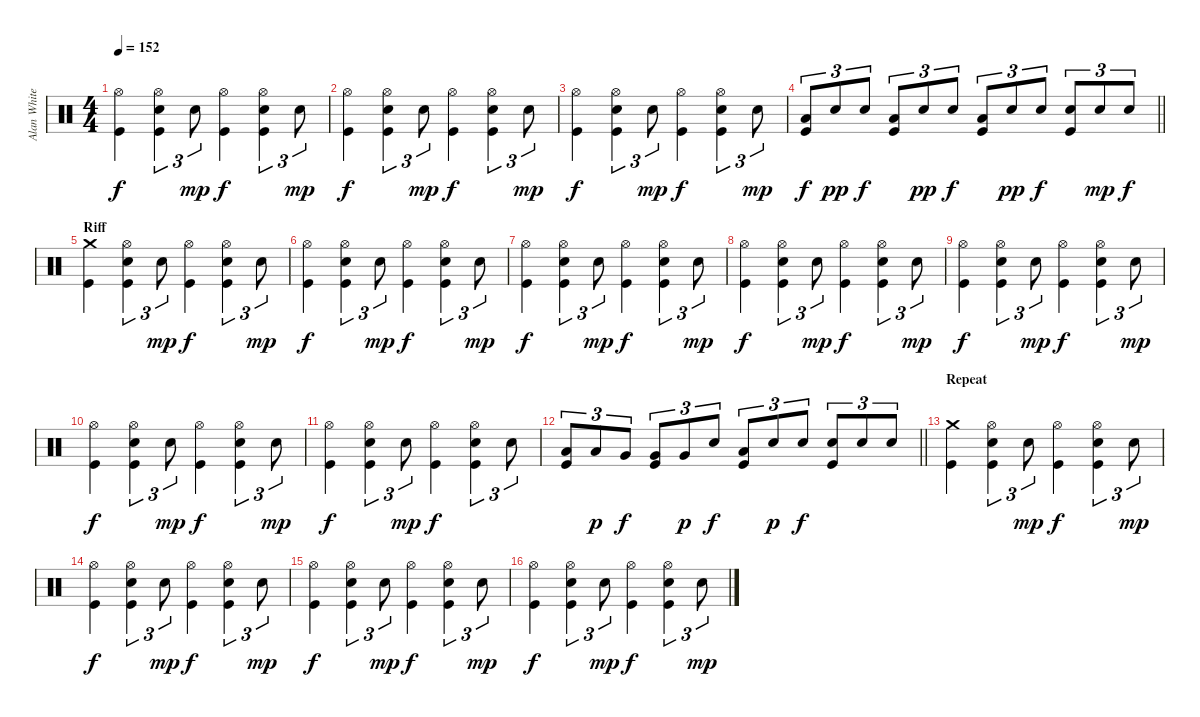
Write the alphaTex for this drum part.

\track ("Alan White" "Alan White") {instrument percussion}
\staff {score}
\articulation defaults
\ts (4 4)
\tempo 152
\clef neutral
\ks c
("Hi-Hat (open)" "Kick (hit)").4{dy f} ("Hi-Hat (open)" "Electric Snare (hit)" "Kick (hit)").4{tu (3 2)} "Electric Snare (hit)".8{tu (3 2) dy mp} ("Hi-Hat (open)" "Kick (hit)").4{dy f} ("Hi-Hat (open)" "Electric Snare (hit)" "Kick (hit)").4{tu (3 2)} "Electric Snare (hit)".8{tu (3 2) dy mp} |
("Hi-Hat (open)" "Kick (hit)").4{dy f} ("Hi-Hat (open)" "Electric Snare (hit)" "Kick (hit)").4{tu (3 2)} "Electric Snare (hit)".8{tu (3 2) dy mp} ("Hi-Hat (open)" "Kick (hit)").4{dy f} ("Hi-Hat (open)" "Electric Snare (hit)" "Kick (hit)").4{tu (3 2)} "Electric Snare (hit)".8{tu (3 2) dy mp} |
("Hi-Hat (open)" "Kick (hit)").4{dy f} ("Hi-Hat (open)" "Electric Snare (hit)" "Kick (hit)").4{tu (3 2)} "Electric Snare (hit)".8{tu (3 2) dy mp} ("Hi-Hat (open)" "Kick (hit)").4{dy f} ("Hi-Hat (open)" "Electric Snare (hit)" "Kick (hit)").4{tu (3 2)} "Electric Snare (hit)".8{tu (3 2) dy mp} |
\barLineRight lightlight
("Low Tom (hit)" "Kick (hit)").8{tu (3 2) dy f} "Electric Snare (hit)".8{tu (3 2) dy pp} "Electric Snare (hit)".8{tu (3 2) dy f} ("Low Tom (hit)" "Kick (hit)").8{tu (3 2)} "Electric Snare (hit)".8{tu (3 2) dy pp} "Electric Snare (hit)".8{tu (3 2) dy f} ("Low Floor Tom (hit)" "Kick (hit)").8{tu (3 2)} "Electric Snare (hit)".8{tu (3 2) dy pp} "Electric Snare (hit)".8{tu (3 2) dy f} ("Electric Snare (hit)" "Kick (hit)").8{tu (3 2)} "Electric Snare (hit)".8{tu (3 2) dy mp} "Electric Snare (hit)".8{tu (3 2) dy f} |
\section ("" "Riff")
("Crash medium (hit)" "Kick (hit)").4 ("Hi-Hat (open)" "Electric Snare (hit)" "Kick (hit)").4{tu (3 2)} "Electric Snare (hit)".8{tu (3 2) dy mp} ("Hi-Hat (open)" "Kick (hit)").4{dy f} ("Hi-Hat (open)" "Electric Snare (hit)" "Kick (hit)").4{tu (3 2)} "Electric Snare (hit)".8{tu (3 2) dy mp} |
("Hi-Hat (open)" "Kick (hit)").4{dy f} ("Hi-Hat (open)" "Electric Snare (hit)" "Kick (hit)").4{tu (3 2)} "Electric Snare (hit)".8{tu (3 2) dy mp} ("Hi-Hat (open)" "Kick (hit)").4{dy f} ("Hi-Hat (open)" "Electric Snare (hit)" "Kick (hit)").4{tu (3 2)} "Electric Snare (hit)".8{tu (3 2) dy mp} |
("Hi-Hat (open)" "Kick (hit)").4{dy f} ("Hi-Hat (open)" "Electric Snare (hit)" "Kick (hit)").4{tu (3 2)} "Electric Snare (hit)".8{tu (3 2) dy mp} ("Hi-Hat (open)" "Kick (hit)").4{dy f} ("Hi-Hat (open)" "Electric Snare (hit)" "Kick (hit)").4{tu (3 2)} "Electric Snare (hit)".8{tu (3 2) dy mp} |
("Hi-Hat (open)" "Kick (hit)").4{dy f} ("Hi-Hat (open)" "Electric Snare (hit)" "Kick (hit)").4{tu (3 2)} "Electric Snare (hit)".8{tu (3 2) dy mp} ("Hi-Hat (open)" "Kick (hit)").4{dy f} ("Hi-Hat (open)" "Electric Snare (hit)" "Kick (hit)").4{tu (3 2)} "Electric Snare (hit)".8{tu (3 2) dy mp} |
("Hi-Hat (open)" "Kick (hit)").4{dy f} ("Hi-Hat (open)" "Electric Snare (hit)" "Kick (hit)").4{tu (3 2)} "Electric Snare (hit)".8{tu (3 2) dy mp} ("Hi-Hat (open)" "Kick (hit)").4{dy f} ("Hi-Hat (open)" "Electric Snare (hit)" "Kick (hit)").4{tu (3 2)} "Electric Snare (hit)".8{tu (3 2) dy mp} |
("Hi-Hat (open)" "Kick (hit)").4{dy f} ("Hi-Hat (open)" "Electric Snare (hit)" "Kick (hit)").4{tu (3 2)} "Electric Snare (hit)".8{tu (3 2) dy mp} ("Hi-Hat (open)" "Kick (hit)").4{dy f} ("Hi-Hat (open)" "Electric Snare (hit)" "Kick (hit)").4{tu (3 2)} "Electric Snare (hit)".8{tu (3 2) dy mp} |
("Hi-Hat (open)" "Kick (hit)").4{dy f} ("Hi-Hat (open)" "Electric Snare (hit)" "Kick (hit)").4{tu (3 2)} "Electric Snare (hit)".8{tu (3 2) dy mp} ("Hi-Hat (open)" "Kick (hit)").4{dy f} ("Hi-Hat (open)" "Electric Snare (hit)" "Kick (hit)").4{tu (3 2)} "Electric Snare (hit)".8{tu (3 2)} |
\barLineRight lightlight
("Low Tom (hit)" "Kick (hit)").8{tu (3 2)} "Low Tom (hit)".8{tu (3 2) dy p} "Very Low Tom (hit)".8{tu (3 2) dy f} ("Very Low Tom (hit)" "Kick (hit)").8{tu (3 2)} "Very Low Tom (hit)".8{tu (3 2) dy p} "Electric Snare (hit)".8{tu (3 2) dy f} ("Low Floor Tom (hit)" "Kick (hit)").8{tu (3 2)} "Electric Snare (hit)".8{tu (3 2) dy p} "Electric Snare (hit)".8{tu (3 2) dy f} ("Electric Snare (hit)" "Kick (hit)").8{tu (3 2)} "Electric Snare (hit)".8{tu (3 2)} "Electric Snare (hit)".8{tu (3 2)} |
\section ("" "Repeat")
("Crash medium (hit)" "Kick (hit)").4 ("Hi-Hat (open)" "Electric Snare (hit)" "Kick (hit)").4{tu (3 2)} "Electric Snare (hit)".8{tu (3 2) dy mp} ("Hi-Hat (open)" "Kick (hit)").4{dy f} ("Hi-Hat (open)" "Electric Snare (hit)" "Kick (hit)").4{tu (3 2)} "Electric Snare (hit)".8{tu (3 2) dy mp} |
("Hi-Hat (open)" "Kick (hit)").4{dy f} ("Hi-Hat (open)" "Electric Snare (hit)" "Kick (hit)").4{tu (3 2)} "Electric Snare (hit)".8{tu (3 2) dy mp} ("Hi-Hat (open)" "Kick (hit)").4{dy f} ("Hi-Hat (open)" "Electric Snare (hit)" "Kick (hit)").4{tu (3 2)} "Electric Snare (hit)".8{tu (3 2) dy mp} |
("Hi-Hat (open)" "Kick (hit)").4{dy f} ("Hi-Hat (open)" "Electric Snare (hit)" "Kick (hit)").4{tu (3 2)} "Electric Snare (hit)".8{tu (3 2) dy mp} ("Hi-Hat (open)" "Kick (hit)").4{dy f} ("Hi-Hat (open)" "Electric Snare (hit)" "Kick (hit)").4{tu (3 2)} "Electric Snare (hit)".8{tu (3 2) dy mp} |
("Hi-Hat (open)" "Kick (hit)").4{dy f} ("Hi-Hat (open)" "Electric Snare (hit)" "Kick (hit)").4{tu (3 2)} "Electric Snare (hit)".8{tu (3 2) dy mp} ("Hi-Hat (open)" "Kick (hit)").4{dy f} ("Hi-Hat (open)" "Electric Snare (hit)" "Kick (hit)").4{tu (3 2)} "Electric Snare (hit)".8{tu (3 2) dy mp}
